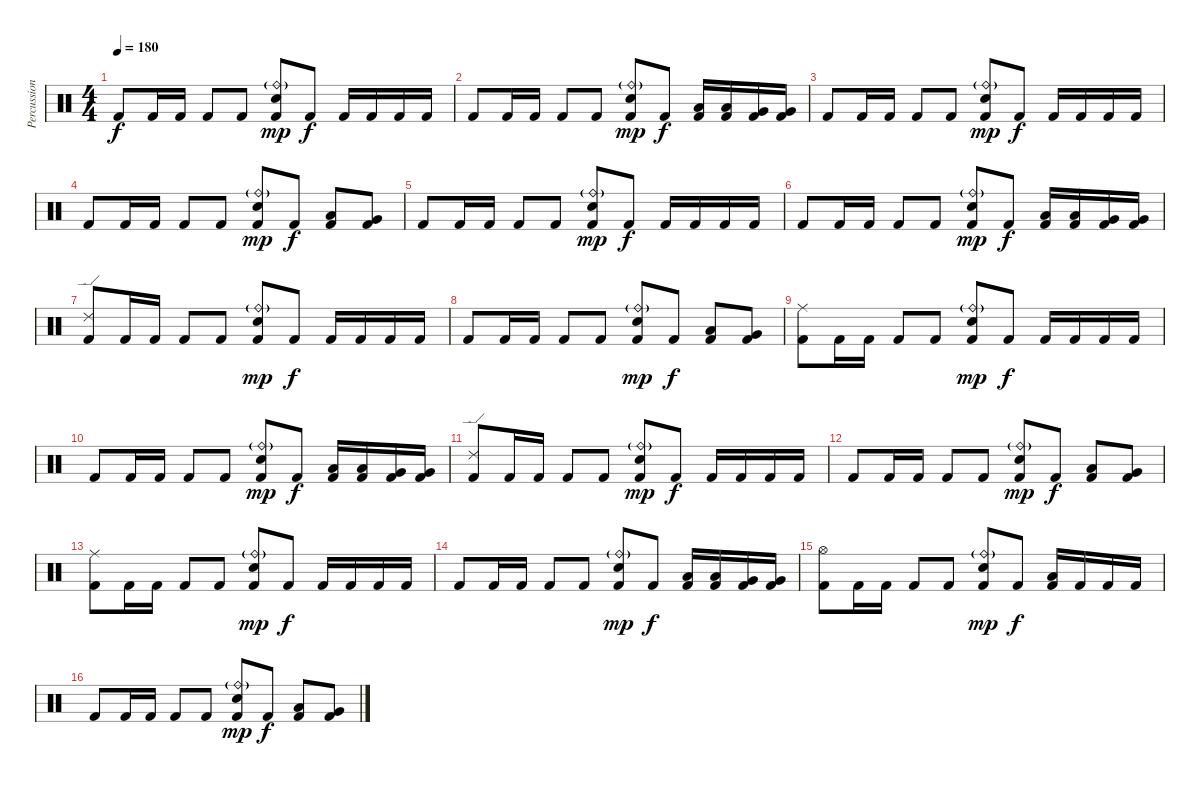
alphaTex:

\track ("Percussion" "Percussion") {instrument percussion}
\staff {score}
\articulation defaults
\ts (4 4)
\tempo 180
\clef neutral
\ks c "Kick (hit) 2".8{dy f} "Kick (hit) 2".16 "Kick (hit) 2".16 "Kick (hit) 2".8 "Kick (hit) 2".8
("Ride (bell)"{g} "Electric Snare (hit)" "Kick (hit) 2").8{dy mp} "Kick (hit) 2".8{dy f} "Kick (hit) 2".16 "Kick (hit) 2".16 "Kick (hit) 2".16 "Kick (hit) 2".16 |
"Kick (hit) 2".8 "Kick (hit) 2".16 "Kick (hit) 2".16 "Kick (hit) 2".8 "Kick (hit) 2".8 ("Ride (bell)"{g} "Electric Snare (hit)" "Kick (hit) 2").8{dy mp} "Kick (hit) 2".8{dy f} ("Low Tom (hit)" "Kick (hit) 2").16 ("Low Tom (hit)" "Kick (hit) 2").16 ("Very Low Tom (hit)" "Kick (hit) 2").16 ("Very Low Tom (hit)" "Kick (hit) 2").16 |
"Kick (hit) 2".8 "Kick (hit) 2".16 "Kick (hit) 2".16 "Kick (hit) 2".8 "Kick (hit) 2".8 ("Ride (bell)"{g} "Electric Snare (hit)" "Kick (hit) 2").8{dy mp} "Kick (hit) 2".8{dy f} "Kick (hit) 2".16 "Kick (hit) 2".16 "Kick (hit) 2".16 "Kick (hit) 2".16 |
"Kick (hit) 2".8 "Kick (hit) 2".16 "Kick (hit) 2".16 "Kick (hit) 2".8 "Kick (hit) 2".8 ("Ride (bell)"{g} "Electric Snare (hit)" "Kick (hit) 2").8{dy mp} "Kick (hit) 2".8{dy f} ("Low Tom (hit)" "Kick (hit) 2").8 ("Very Low Tom (hit)" "Kick (hit) 2").8 |
"Kick (hit) 2".8 "Kick (hit) 2".16 "Kick (hit) 2".16 "Kick (hit) 2".8 "Kick (hit) 2".8 ("Ride (bell)"{g} "Electric Snare (hit)" "Kick (hit) 2").8{dy mp} "Kick (hit) 2".8{dy f} "Kick (hit) 2".16 "Kick (hit) 2".16 "Kick (hit) 2".16 "Kick (hit) 2".16 |
"Kick (hit) 2".8 "Kick (hit) 2".16 "Kick (hit) 2".16 "Kick (hit) 2".8 "Kick (hit) 2".8 ("Ride (bell)"{g} "Electric Snare (hit)" "Kick (hit) 2").8{dy mp} "Kick (hit) 2".8{dy f} ("Low Tom (hit)" "Kick (hit) 2").16 ("Low Tom (hit)" "Kick (hit) 2").16 ("Very Low Tom (hit)" "Kick (hit) 2").16 ("Very Low Tom (hit)" "Kick (hit) 2").16 |
("Ride (edge) 2" "Kick (hit) 2").8 "Kick (hit) 2".16 "Kick (hit) 2".16 "Kick (hit) 2".8 "Kick (hit) 2".8 ("Ride (bell)"{g} "Electric Snare (hit)" "Kick (hit) 2").8{dy mp} "Kick (hit) 2".8{dy f} "Kick (hit) 2".16 "Kick (hit) 2".16 "Kick (hit) 2".16 "Kick (hit) 2".16 |
"Kick (hit) 2".8 "Kick (hit) 2".16 "Kick (hit) 2".16 "Kick (hit) 2".8 "Kick (hit) 2".8 ("Ride (bell)"{g} "Electric Snare (hit)" "Kick (hit) 2").8{dy mp} "Kick (hit) 2".8{dy f} ("Low Tom (hit)" "Kick (hit) 2").8 ("Very Low Tom (hit)" "Kick (hit) 2").8 |
("Ride (middle)" "Kick (hit) 2").8 "Kick (hit) 2".16 "Kick (hit) 2".16 "Kick (hit) 2".8 "Kick (hit) 2".8 ("Ride (bell)"{g} "Electric Snare (hit)" "Kick (hit) 2").8{dy mp} "Kick (hit) 2".8{dy f} "Kick (hit) 2".16 "Kick (hit) 2".16 "Kick (hit) 2".16 "Kick (hit) 2".16 |
"Kick (hit) 2".8 "Kick (hit) 2".16 "Kick (hit) 2".16 "Kick (hit) 2".8 "Kick (hit) 2".8 ("Ride (bell)"{g} "Electric Snare (hit)" "Kick (hit) 2").8{dy mp} "Kick (hit) 2".8{dy f} ("Low Tom (hit)" "Kick (hit) 2").16 ("Low Tom (hit)" "Kick (hit) 2").16 ("Very Low Tom (hit)" "Kick (hit) 2").16 ("Very Low Tom (hit)" "Kick (hit) 2").16 |
("Ride (edge) 2" "Kick (hit) 2").8 "Kick (hit) 2".16 "Kick (hit) 2".16 "Kick (hit) 2".8 "Kick (hit) 2".8 ("Ride (bell)"{g} "Electric Snare (hit)" "Kick (hit) 2").8{dy mp} "Kick (hit) 2".8{dy f} "Kick (hit) 2".16 "Kick (hit) 2".16 "Kick (hit) 2".16 "Kick (hit) 2".16 |
"Kick (hit) 2".8 "Kick (hit) 2".16 "Kick (hit) 2".16 "Kick (hit) 2".8 "Kick (hit) 2".8 ("Ride (bell)"{g} "Electric Snare (hit)" "Kick (hit) 2").8{dy mp} "Kick (hit) 2".8{dy f} ("Low Tom (hit)" "Kick (hit) 2").8 ("Very Low Tom (hit)" "Kick (hit) 2").8 |
("Ride (middle)" "Kick (hit) 2").8 "Kick (hit) 2".16 "Kick (hit) 2".16 "Kick (hit) 2".8 "Kick (hit) 2".8 ("Ride (bell)"{g} "Electric Snare (hit)" "Kick (hit) 2").8{dy mp} "Kick (hit) 2".8{dy f} "Kick (hit) 2".16 "Kick (hit) 2".16 "Kick (hit) 2".16 "Kick (hit) 2".16 |
"Kick (hit) 2".8 "Kick (hit) 2".16 "Kick (hit) 2".16 "Kick (hit) 2".8 "Kick (hit) 2".8 ("Ride (bell)"{g} "Electric Snare (hit)" "Kick (hit) 2").8{dy mp} "Kick (hit) 2".8{dy f} ("Low Tom (hit)" "Kick (hit) 2").16 ("Low Tom (hit)" "Kick (hit) 2").16 ("Very Low Tom (hit)" "Kick (hit) 2").16 ("Very Low Tom (hit)" "Kick (hit) 2").16 |
("Hi-Hat (open)" "Kick (hit) 2").8 "Kick (hit) 2".16 "Kick (hit) 2".16 "Kick (hit) 2".8 "Kick (hit) 2".8 ("Ride (bell)"{g} "Electric Snare (hit)" "Kick (hit) 2").8{dy mp} "Kick (hit) 2".8{dy f} ("Low Floor Tom (hit)" "Kick (hit) 2").16 "Kick (hit) 2".16 "Kick (hit) 2".16 "Kick (hit) 2".16 |
"Kick (hit) 2".8 "Kick (hit) 2".16 "Kick (hit) 2".16 "Kick (hit) 2".8 "Kick (hit) 2".8 ("Ride (bell)"{g} "Electric Snare (hit)" "Kick (hit) 2").8{dy mp} "Kick (hit) 2".8{dy f} ("Low Tom (hit)" "Kick (hit) 2").8 ("Very Low Tom (hit)" "Kick (hit) 2").8
